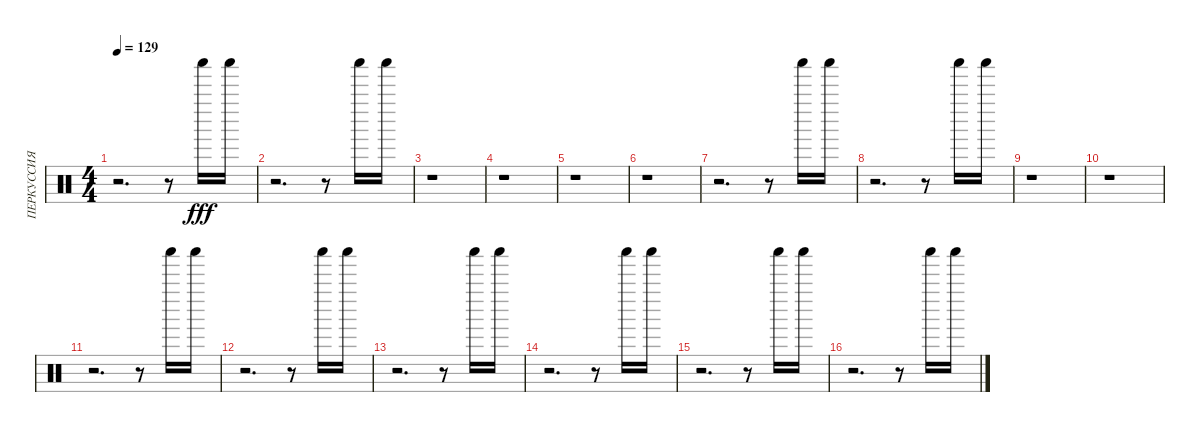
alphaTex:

\track ("ПЕРКУССИЯ 2" "ПЕРКУССИЯ ") {instrument percussion}
\staff {score}
\articulation defaults
\ts (4 4)
\tempo 129
\clef neutral
\ks c
r.2{d dy fff} r.8 "Shaker (hit)".16 "Shaker (hit)".16 |
r.2{d} r.8 "Shaker (hit)".16 "Shaker (hit)".16 |
r.1 |
r.1 |
r.1 |
r.1 |
r.2{d} r.8 "Shaker (hit)".16 "Shaker (hit)".16 |
r.2{d} r.8 "Shaker (hit)".16 "Shaker (hit)".16 |
r.1 |
r.1 |
r.2{d} r.8 "Shaker (hit)".16 "Shaker (hit)".16 |
r.2{d} r.8 "Shaker (hit)".16 "Shaker (hit)".16 |
r.2{d} r.8 "Shaker (hit)".16 "Shaker (hit)".16 |
r.2{d} r.8 "Shaker (hit)".16 "Shaker (hit)".16 |
r.2{d} r.8 "Shaker (hit)".16 "Shaker (hit)".16 |
r.2{d} r.8 "Shaker (hit)".16 "Shaker (hit)".16
